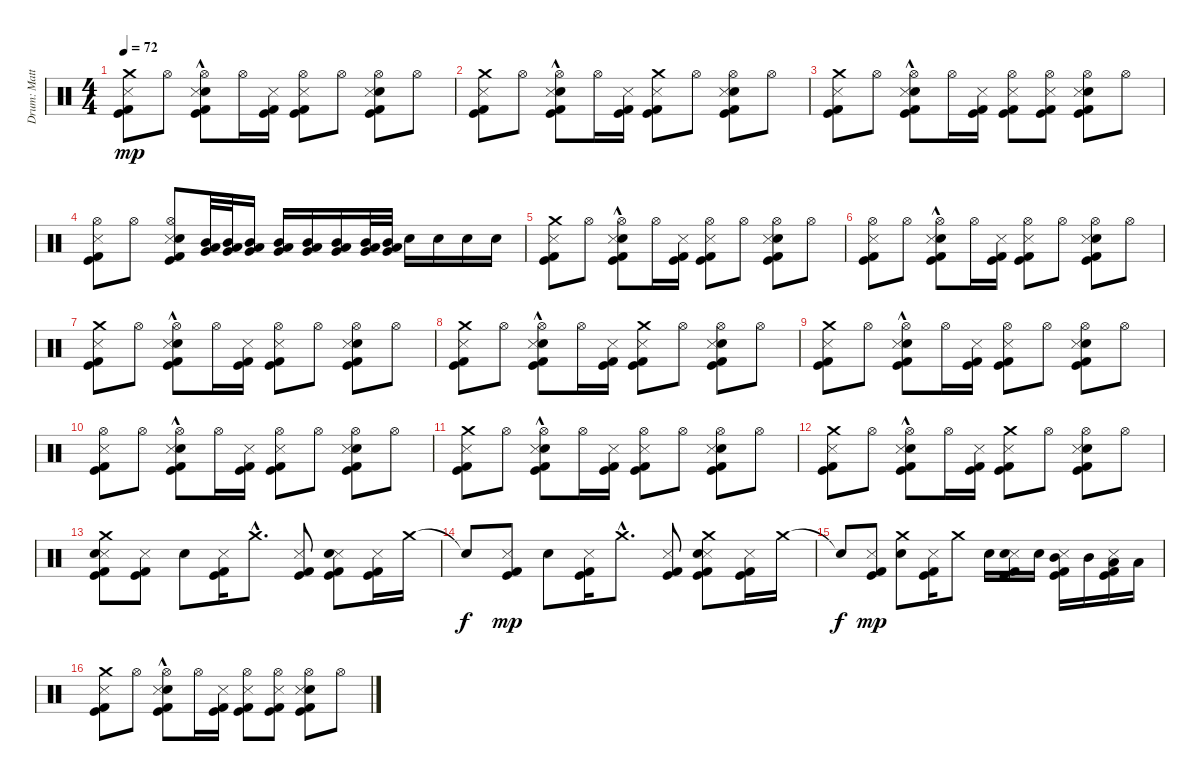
\track ("Drum: Matt" "Drum: Matt") {instrument percussion}
\staff {score}
\articulation defaults
\ts (4 4)
\tempo 72
\clef neutral
\ks c
("Crash medium (hit)" "Metronome (hit)" "Kick (hit)" "Kick (hit) 2").8{dy mp} "Hi-Hat (open)".8 ("Snare (hit) 2" "Hi-Hat (open)" "Metronome (hit)"{hac} "Kick (hit)"{hac} "Kick (hit) 2"{hac}).8 "Hi-Hat (open)".16 ("Metronome (hit)" "Kick (hit)" "Kick (hit) 2").16 ("Hi-Hat (open)" "Metronome (hit)" "Kick (hit)" "Kick (hit) 2").8 "Hi-Hat (open)".8 ("Snare (hit) 2" "Hi-Hat (open)" "Metronome (hit)" "Kick (hit)" "Kick (hit) 2").8 "Hi-Hat (open)".8 |
("Crash medium (hit)" "Metronome (hit)" "Kick (hit)" "Kick (hit) 2").8 "Hi-Hat (open)".8 ("Snare (hit) 2" "Hi-Hat (open)" "Metronome (hit)"{hac} "Kick (hit)"{hac} "Kick (hit) 2"{hac}).8 "Hi-Hat (open)".16 ("Metronome (hit)" "Kick (hit)" "Kick (hit) 2").16 ("Crash medium (hit)" "Metronome (hit)" "Kick (hit)" "Kick (hit) 2").8 "Hi-Hat (open)".8 ("Snare (hit) 2" "Hi-Hat (open)" "Metronome (hit)" "Kick (hit)" "Kick (hit) 2").8 "Hi-Hat (open)".8 |
("Crash medium (hit)" "Metronome (hit)" "Kick (hit)" "Kick (hit) 2").8 "Hi-Hat (open)".8 ("Snare (hit) 2" "Hi-Hat (open)" "Metronome (hit)"{hac} "Kick (hit)"{hac} "Kick (hit) 2"{hac}).8 "Hi-Hat (open)".16 ("Metronome (hit)" "Kick (hit)" "Kick (hit) 2").16 ("Hi-Hat (open)" "Metronome (hit)" "Kick (hit)" "Kick (hit) 2").8 ("Hi-Hat (open)" "Metronome (hit)" "Kick (hit)" "Kick (hit) 2").8 ("Snare (hit) 2" "Hi-Hat (open)" "Metronome (hit)" "Kick (hit)" "Kick (hit) 2").8 "Hi-Hat (open)".8 |
("Metronome (hit)" "Kick (hit)" "Kick (hit) 2" "Hi-Hat (open)").8 "Hi-Hat (open)".8 ("Metronome (hit)" "Kick (hit)" "Kick (hit) 2" "Snare (hit) 2" "Hi-Hat (open)").8 ("Very Low Tom (hit)" "Low Tom (hit)" "Mid Tom (hit)").32 ("Very Low Tom (hit)" "Low Tom (hit)" "Mid Tom (hit)").32 ("Very Low Tom (hit)" "Low Tom (hit)" "Mid Tom (hit)").16 ("Very Low Tom (hit)" "Low Tom (hit)" "Mid Tom (hit)").16 ("Very Low Tom (hit)" "Low Tom (hit)" "Mid Tom (hit)").16 ("Very Low Tom (hit)" "Low Tom (hit)" "Mid Tom (hit)").16 ("Very Low Tom (hit)" "Low Tom (hit)" "Mid Tom (hit)").32 ("Very Low Tom (hit)" "Low Tom (hit)" "Mid Tom (hit)").32 "Snare (hit) 2".16 "Snare (hit) 2".16 "Snare (hit) 2".16 "Snare (hit) 2".16 |
("Crash medium (hit)" "Metronome (hit)" "Kick (hit)" "Kick (hit) 2").8 "Hi-Hat (open)".8 ("Snare (hit) 2" "Hi-Hat (open)" "Metronome (hit)"{hac} "Kick (hit)"{hac} "Kick (hit) 2"{hac}).8 "Hi-Hat (open)".16 ("Metronome (hit)" "Kick (hit)" "Kick (hit) 2").16 ("Hi-Hat (open)" "Metronome (hit)" "Kick (hit)" "Kick (hit) 2").8 "Hi-Hat (open)".8 ("Snare (hit) 2" "Hi-Hat (open)" "Metronome (hit)" "Kick (hit)" "Kick (hit) 2").8 "Hi-Hat (open)".8 |
("Hi-Hat (open)" "Metronome (hit)" "Kick (hit)" "Kick (hit) 2").8 "Hi-Hat (open)".8 ("Snare (hit) 2" "Hi-Hat (open)" "Metronome (hit)"{hac} "Kick (hit)"{hac} "Kick (hit) 2"{hac}).8 "Hi-Hat (open)".16 ("Metronome (hit)" "Kick (hit)" "Kick (hit) 2").16 ("Hi-Hat (open)" "Metronome (hit)" "Kick (hit)" "Kick (hit) 2").8 "Hi-Hat (open)".8 ("Snare (hit) 2" "Hi-Hat (open)" "Metronome (hit)" "Kick (hit)" "Kick (hit) 2").8 "Hi-Hat (open)".8 |
("Crash medium (hit)" "Metronome (hit)" "Kick (hit)" "Kick (hit) 2").8 "Hi-Hat (open)".8 ("Snare (hit) 2" "Hi-Hat (open)" "Metronome (hit)"{hac} "Kick (hit)"{hac} "Kick (hit) 2"{hac}).8 "Hi-Hat (open)".16 ("Metronome (hit)" "Kick (hit)" "Kick (hit) 2").16 ("Hi-Hat (open)" "Metronome (hit)" "Kick (hit)" "Kick (hit) 2").8 "Hi-Hat (open)".8 ("Snare (hit) 2" "Hi-Hat (open)" "Metronome (hit)" "Kick (hit)" "Kick (hit) 2").8 "Hi-Hat (open)".8 |
("Crash medium (hit)" "Metronome (hit)" "Kick (hit)" "Kick (hit) 2").8 "Hi-Hat (open)".8 ("Snare (hit) 2" "Hi-Hat (open)" "Metronome (hit)"{hac} "Kick (hit)"{hac} "Kick (hit) 2"{hac}).8 "Hi-Hat (open)".16 ("Metronome (hit)" "Kick (hit)" "Kick (hit) 2").16 ("Crash medium (hit)" "Metronome (hit)" "Kick (hit)" "Kick (hit) 2").8 "Hi-Hat (open)".8 ("Snare (hit) 2" "Hi-Hat (open)" "Metronome (hit)" "Kick (hit)" "Kick (hit) 2").8 "Hi-Hat (open)".8 |
("Crash medium (hit)" "Metronome (hit)" "Kick (hit)" "Kick (hit) 2").8 "Hi-Hat (open)".8 ("Snare (hit) 2" "Hi-Hat (open)" "Metronome (hit)"{hac} "Kick (hit)"{hac} "Kick (hit) 2"{hac}).8 "Hi-Hat (open)".16 ("Metronome (hit)" "Kick (hit)" "Kick (hit) 2").16 ("Hi-Hat (open)" "Metronome (hit)" "Kick (hit)" "Kick (hit) 2").8 "Hi-Hat (open)".8 ("Snare (hit) 2" "Hi-Hat (open)" "Metronome (hit)" "Kick (hit)" "Kick (hit) 2").8 "Hi-Hat (open)".8 |
("Hi-Hat (open)" "Metronome (hit)" "Kick (hit)" "Kick (hit) 2").8 "Hi-Hat (open)".8 ("Snare (hit) 2" "Hi-Hat (open)" "Metronome (hit)"{hac} "Kick (hit)"{hac} "Kick (hit) 2"{hac}).8 "Hi-Hat (open)".16 ("Metronome (hit)" "Kick (hit)" "Kick (hit) 2").16 ("Hi-Hat (open)" "Metronome (hit)" "Kick (hit)" "Kick (hit) 2").8 "Hi-Hat (open)".8 ("Snare (hit) 2" "Hi-Hat (open)" "Metronome (hit)" "Kick (hit)" "Kick (hit) 2").8 "Hi-Hat (open)".8 |
("Crash medium (hit)" "Metronome (hit)" "Kick (hit)" "Kick (hit) 2").8 "Hi-Hat (open)".8 ("Snare (hit) 2" "Hi-Hat (open)" "Metronome (hit)"{hac} "Kick (hit)"{hac} "Kick (hit) 2"{hac}).8 "Hi-Hat (open)".16 ("Metronome (hit)" "Kick (hit)" "Kick (hit) 2").16 ("Hi-Hat (open)" "Metronome (hit)" "Kick (hit)" "Kick (hit) 2").8 "Hi-Hat (open)".8 ("Snare (hit) 2" "Hi-Hat (open)" "Metronome (hit)" "Kick (hit)" "Kick (hit) 2").8 "Hi-Hat (open)".8 |
("Crash medium (hit)" "Metronome (hit)" "Kick (hit)" "Kick (hit) 2").8 "Hi-Hat (open)".8 ("Snare (hit) 2" "Hi-Hat (open)" "Metronome (hit)"{hac} "Kick (hit)"{hac} "Kick (hit) 2"{hac}).8 "Hi-Hat (open)".16 ("Metronome (hit)" "Kick (hit)" "Kick (hit) 2").16 ("Crash medium (hit)" "Metronome (hit)" "Kick (hit)" "Kick (hit) 2").8 "Hi-Hat (open)".8 ("Snare (hit) 2" "Hi-Hat (open)" "Metronome (hit)" "Kick (hit)" "Kick (hit) 2").8 "Hi-Hat (open)".8 |
("Metronome (hit)" "Kick (hit)" "Kick (hit) 2" "Snare (hit) 2" "Crash medium (hit)").8 ("Metronome (hit)" "Kick (hit)" "Kick (hit) 2").8 "Snare (hit) 2".8 ("Metronome (hit)" "Kick (hit)" "Kick (hit) 2").16 "Crash medium (hit)"{hac}.8{d} ("Metronome (hit)" "Kick (hit)" "Kick (hit) 2").8 ("Metronome (hit)" "Kick (hit)" "Kick (hit) 2" "Snare (hit) 2").8 ("Metronome (hit)" "Kick (hit)" "Kick (hit) 2").16 "Crash medium (hit)".16 |
"Snare (hit)"{t}.8{dy f} ("Metronome (hit)" "Kick (hit)" "Kick (hit) 2").8{dy mp} "Snare (hit) 2".8 ("Metronome (hit)" "Kick (hit)" "Kick (hit) 2").16 "Crash medium (hit)"{hac}.8{d} ("Metronome (hit)" "Kick (hit)" "Kick (hit) 2").8 ("Metronome (hit)" "Kick (hit)" "Kick (hit) 2" "Snare (hit) 2" "Crash medium (hit)").8 ("Metronome (hit)" "Kick (hit)" "Kick (hit) 2").16 "Crash medium (hit)".16 |
"Snare (hit)"{t}.8{dy f} ("Metronome (hit)" "Kick (hit)" "Kick (hit) 2").8{dy mp} ("Snare (hit) 2" "Crash medium (hit)").8 ("Metronome (hit)" "Kick (hit)" "Kick (hit) 2").16 "Crash medium (hit)".8 "Snare (hit) 2".16 ("Metronome (hit)" "Kick (hit)" "Kick (hit) 2" "Snare (hit) 2").16 "Snare (hit) 2".16 ("Metronome (hit)" "Kick (hit)" "Kick (hit) 2" "Mid Tom (hit)").16 "Mid Tom (hit)".16 ("Metronome (hit)" "Kick (hit)" "Kick (hit) 2" "Low Tom (hit)").16 "Low Tom (hit)".16 |
("Crash medium (hit)" "Metronome (hit)" "Kick (hit)" "Kick (hit) 2").8 "Hi-Hat (open)".8 ("Snare (hit) 2" "Hi-Hat (open)" "Metronome (hit)"{hac} "Kick (hit)"{hac} "Kick (hit) 2"{hac}).8 "Hi-Hat (open)".16 ("Metronome (hit)" "Kick (hit)" "Kick (hit) 2").16 ("Hi-Hat (open)" "Metronome (hit)" "Kick (hit)" "Kick (hit) 2").8 ("Hi-Hat (open)" "Metronome (hit)" "Kick (hit)" "Kick (hit) 2").8 ("Snare (hit) 2" "Hi-Hat (open)" "Metronome (hit)" "Kick (hit)" "Kick (hit) 2").8 "Hi-Hat (open)".8
